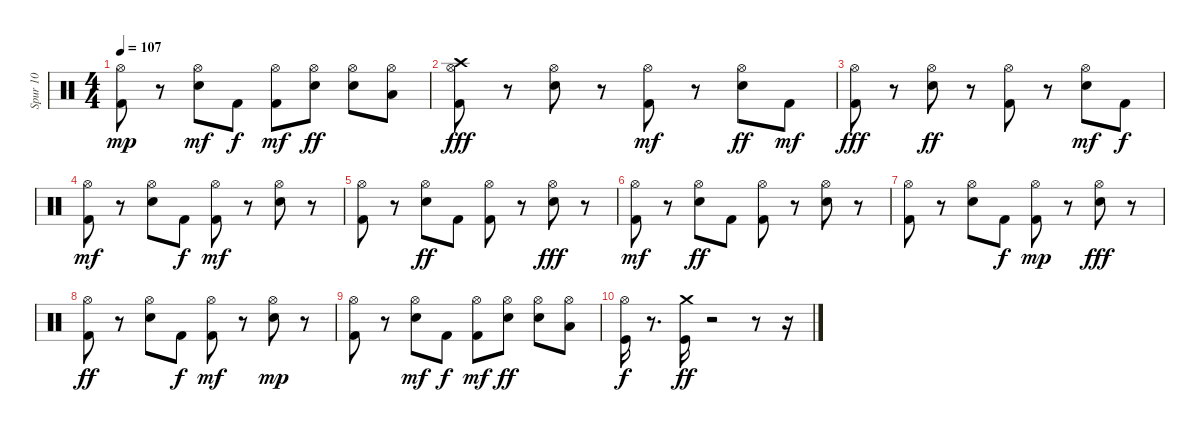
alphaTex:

\track ("Spur 10" "Spur 10") {instrument percussion}
\staff {score}
\articulation defaults
\ts (4 4)
\tempo 107
\clef neutral
\ks c
("Kick (hit) 2" "Hi-Hat (open)").8{dy mp} r.8 ("Electric Snare (hit)" "Hi-Hat (open)").8{dy mf} "Kick (hit) 2".8{dy f} ("Kick (hit) 2" "Hi-Hat (open)").8{dy mf} ("Hi-Hat (open)" "Electric Snare (hit)").8{dy ff} ("Hi-Hat (open)" "Electric Snare (hit)").8 ("Hi-Hat (open)" "Low Floor Tom (hit)").8 |
("Hi-Hat (open)" "Crash high (hit)" "Kick (hit) 2").8{dy fff} r.8 ("Hi-Hat (open)" "Electric Snare (hit)").8 r.8 ("Hi-Hat (open)" "Kick (hit) 2").8{dy mf} r.8 ("Hi-Hat (open)" "Electric Snare (hit)").8{dy ff} "Kick (hit) 2".8{dy mf} |
("Hi-Hat (open)" "Kick (hit) 2").8{dy fff} r.8 ("Electric Snare (hit)" "Hi-Hat (open)").8{dy ff} r.8 ("Kick (hit) 2" "Hi-Hat (open)").8 r.8 ("Electric Snare (hit)" "Hi-Hat (open)").8{dy mf} "Kick (hit) 2".8{dy f} |
("Kick (hit) 2" "Hi-Hat (open)").8{dy mf} r.8 ("Electric Snare (hit)" "Hi-Hat (open)").8 "Kick (hit) 2".8{dy f} ("Kick (hit) 2" "Hi-Hat (open)").8{dy mf} r.8 ("Electric Snare (hit)" "Hi-Hat (open)").8 r.8 |
("Kick (hit) 2" "Hi-Hat (open)").8 r.8 ("Hi-Hat (open)" "Electric Snare (hit)").8{dy ff} "Kick (hit) 2".8 ("Hi-Hat (open)" "Kick (hit) 2").8 r.8 ("Hi-Hat (open)" "Electric Snare (hit)").8{dy fff} r.8 |
("Kick (hit) 2" "Hi-Hat (open)").8{dy mf} r.8 ("Hi-Hat (open)" "Electric Snare (hit)").8{dy ff} "Kick (hit) 2".8 ("Hi-Hat (open)" "Kick (hit) 2").8 r.8 ("Hi-Hat (open)" "Electric Snare (hit)").8 r.8 |
("Hi-Hat (open)" "Kick (hit) 2").8 r.8 ("Hi-Hat (open)" "Electric Snare (hit)").8 "Kick (hit) 2".8{dy f} ("Hi-Hat (open)" "Kick (hit) 2").8{dy mp} r.8 ("Hi-Hat (open)" "Electric Snare (hit)").8{dy fff} r.8 |
("Hi-Hat (open)" "Kick (hit) 2").8{dy ff} r.8 ("Hi-Hat (open)" "Electric Snare (hit)").8 "Kick (hit) 2".8{dy f} ("Kick (hit) 2" "Hi-Hat (open)").8{dy mf} r.8 ("Electric Snare (hit)" "Hi-Hat (open)").8{dy mp} r.8 |
("Kick (hit) 2" "Hi-Hat (open)").8 r.8 ("Electric Snare (hit)" "Hi-Hat (open)").8{dy mf} "Kick (hit) 2".8{dy f} ("Kick (hit) 2" "Hi-Hat (open)").8{dy mf} ("Hi-Hat (open)" "Electric Snare (hit)").8{dy ff} ("Hi-Hat (open)" "Electric Snare (hit)").8 ("Hi-Hat (open)" "Low Floor Tom (hit)").8 |
("Kick (hit)" "Hi-Hat (open)").16{dy f} r.8{d} ("Kick (hit)" "Crash medium (hit)").16{dy ff} r.2 r.8 r.16
